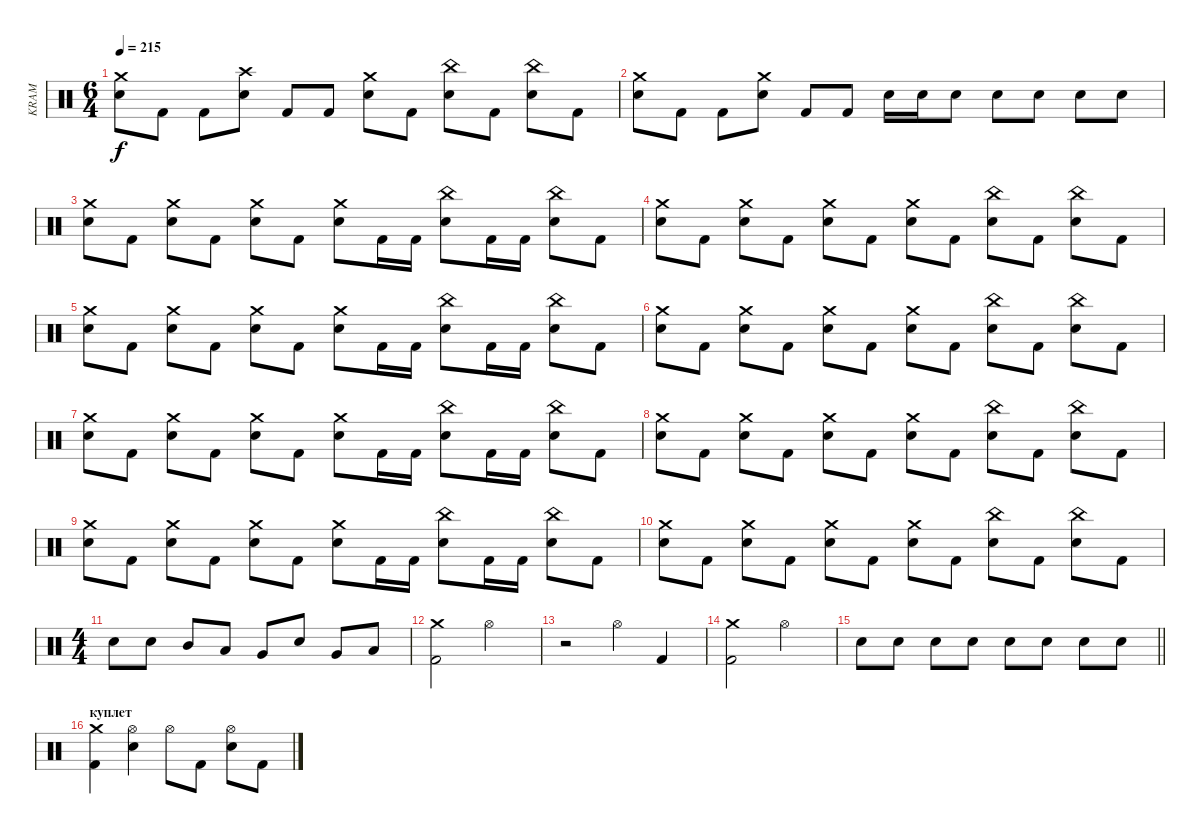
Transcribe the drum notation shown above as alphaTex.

\track ("KRAM" "KRAM") {instrument percussion}
\staff {score}
\articulation defaults
\ts (6 4)
\tempo 215
\clef neutral
\ks c
("Electric Snare (hit)" "Crash medium (hit)").8{dy f} "Kick (hit) 2".8 "Kick (hit) 2".8 ("Electric Snare (hit)" "Crash high (hit)").8 "Kick (hit) 2".8 "Kick (hit) 2".8 ("Electric Snare (hit)" "Crash medium (hit)").8 "Kick (hit) 2".8 ("Electric Snare (hit)" "China (hit)").8 "Kick (hit) 2".8 ("Electric Snare (hit)" "China (hit)").8 "Kick (hit) 2".8 |
("Electric Snare (hit)" "Crash medium (hit)").8 "Kick (hit) 2".8 "Kick (hit) 2".8 ("Electric Snare (hit)" "Crash medium (hit)").8 "Kick (hit) 2".8 "Kick (hit) 2".8 "Electric Snare (hit)".16 "Electric Snare (hit)".16 "Electric Snare (hit)".8 "Electric Snare (hit)".8 "Electric Snare (hit)".8 "Electric Snare (hit)".8 "Electric Snare (hit)".8 |
("Electric Snare (hit)" "Crash medium (hit)").8 "Kick (hit) 2".8 ("Electric Snare (hit)" "Crash medium (hit)").8 "Kick (hit) 2".8 ("Electric Snare (hit)" "Crash medium (hit)").8 "Kick (hit) 2".8 ("Electric Snare (hit)" "Crash medium (hit)").8 "Kick (hit) 2".16 "Kick (hit) 2".16 ("Electric Snare (hit)" "China (hit)").8 "Kick (hit) 2".16 "Kick (hit) 2".16 ("Electric Snare (hit)" "China (hit)").8 "Kick (hit) 2".8 |
("Electric Snare (hit)" "Crash medium (hit)").8 "Kick (hit) 2".8 ("Electric Snare (hit)" "Crash medium (hit)").8 "Kick (hit) 2".8 ("Electric Snare (hit)" "Crash medium (hit)").8 "Kick (hit) 2".8 ("Electric Snare (hit)" "Crash medium (hit)").8 "Kick (hit) 2".8 ("Electric Snare (hit)" "China (hit)").8 "Kick (hit) 2".8 ("Electric Snare (hit)" "China (hit)").8 "Kick (hit) 2".8 |
("Electric Snare (hit)" "Crash medium (hit)").8 "Kick (hit) 2".8 ("Electric Snare (hit)" "Crash medium (hit)").8 "Kick (hit) 2".8 ("Electric Snare (hit)" "Crash medium (hit)").8 "Kick (hit) 2".8 ("Electric Snare (hit)" "Crash medium (hit)").8 "Kick (hit) 2".16 "Kick (hit) 2".16 ("Electric Snare (hit)" "China (hit)").8 "Kick (hit) 2".16 "Kick (hit) 2".16 ("Electric Snare (hit)" "China (hit)").8 "Kick (hit) 2".8 |
("Electric Snare (hit)" "Crash medium (hit)").8 "Kick (hit) 2".8 ("Electric Snare (hit)" "Crash medium (hit)").8 "Kick (hit) 2".8 ("Electric Snare (hit)" "Crash medium (hit)").8 "Kick (hit) 2".8 ("Electric Snare (hit)" "Crash medium (hit)").8 "Kick (hit) 2".8 ("Electric Snare (hit)" "China (hit)").8 "Kick (hit) 2".8 ("Electric Snare (hit)" "China (hit)").8 "Kick (hit) 2".8 |
("Electric Snare (hit)" "Crash medium (hit)").8 "Kick (hit) 2".8 ("Electric Snare (hit)" "Crash medium (hit)").8 "Kick (hit) 2".8 ("Electric Snare (hit)" "Crash medium (hit)").8 "Kick (hit) 2".8 ("Electric Snare (hit)" "Crash medium (hit)").8 "Kick (hit) 2".16 "Kick (hit) 2".16 ("Electric Snare (hit)" "China (hit)").8 "Kick (hit) 2".16 "Kick (hit) 2".16 ("Electric Snare (hit)" "China (hit)").8 "Kick (hit) 2".8 |
("Electric Snare (hit)" "Crash medium (hit)").8 "Kick (hit) 2".8 ("Electric Snare (hit)" "Crash medium (hit)").8 "Kick (hit) 2".8 ("Electric Snare (hit)" "Crash medium (hit)").8 "Kick (hit) 2".8 ("Electric Snare (hit)" "Crash medium (hit)").8 "Kick (hit) 2".8 ("Electric Snare (hit)" "China (hit)").8 "Kick (hit) 2".8 ("Electric Snare (hit)" "China (hit)").8 "Kick (hit) 2".8 |
("Electric Snare (hit)" "Crash medium (hit)").8 "Kick (hit) 2".8 ("Electric Snare (hit)" "Crash medium (hit)").8 "Kick (hit) 2".8 ("Electric Snare (hit)" "Crash medium (hit)").8 "Kick (hit) 2".8 ("Electric Snare (hit)" "Crash medium (hit)").8 "Kick (hit) 2".16 "Kick (hit) 2".16 ("Electric Snare (hit)" "China (hit)").8 "Kick (hit) 2".16 "Kick (hit) 2".16 ("Electric Snare (hit)" "China (hit)").8 "Kick (hit) 2".8 |
("Electric Snare (hit)" "Crash medium (hit)").8 "Kick (hit) 2".8 ("Electric Snare (hit)" "Crash medium (hit)").8 "Kick (hit) 2".8 ("Electric Snare (hit)" "Crash medium (hit)").8 "Kick (hit) 2".8 ("Electric Snare (hit)" "Crash medium (hit)").8 "Kick (hit) 2".8 ("Electric Snare (hit)" "China (hit)").8 "Kick (hit) 2".8 ("Electric Snare (hit)" "China (hit)").8 "Kick (hit) 2".8 |
\ts (4 4)
"Electric Snare (hit)".8 "Electric Snare (hit)".8 "Mid Tom (hit)".8 "Low Tom (hit)".8 "Very Low Tom (hit)".8 "Electric Snare (hit)".8 "Very Low Tom (hit)".8 "Low Floor Tom (hit)".8 |
("Kick (hit) 2" "Crash medium (hit)").2 "Hi-Hat (open)".2 |
r.2 "Hi-Hat (open)".4 "Kick (hit) 2".4 |
("Kick (hit) 2" "Crash medium (hit)").2 "Hi-Hat (open)".2 |
\barLineRight lightlight "Electric Snare (hit)".8 "Electric Snare (hit)".8 "Electric Snare (hit)".8 "Electric Snare (hit)".8 "Electric Snare (hit)".8 "Electric Snare (hit)".8 "Electric Snare (hit)".8 "Electric Snare (hit)".8
|
\section ("" "куплет")
("Kick (hit) 2" "Crash medium (hit)").4 ("Electric Snare (hit)" "Hi-Hat (open)").4 "Hi-Hat (open)".8 "Kick (hit) 2".8 ("Electric Snare (hit)" "Hi-Hat (open)").8 "Kick (hit) 2".8
